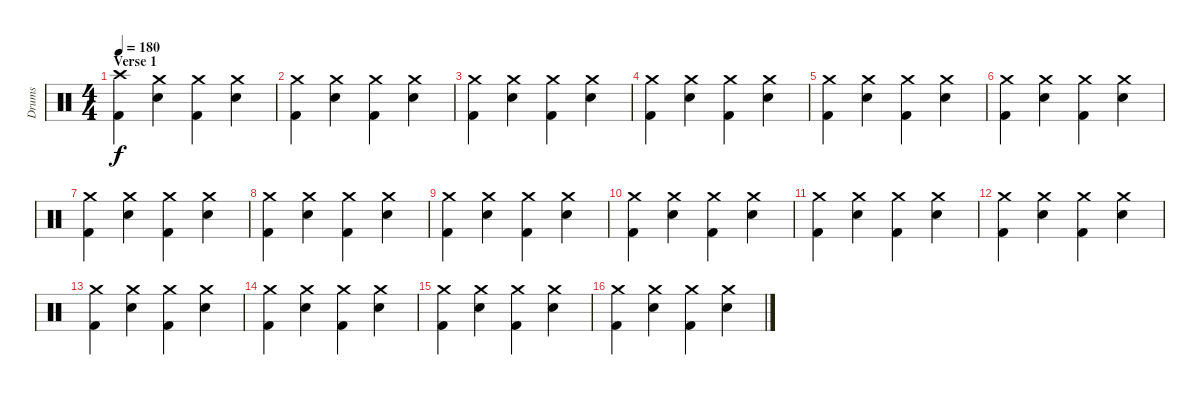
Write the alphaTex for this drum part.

\track ("Drums" "Drums") {instrument percussion}
\staff {score}
\articulation defaults
\ts (4 4)
\section ("" "Verse 1")
\tempo 180
\clef neutral
\ks c
("Crash high (hit)" "Kick (hit) 2").4{dy f} ("Crash medium (hit)" "Snare (hit) 2").4 ("Crash medium (hit)" "Kick (hit) 2").4 ("Crash medium (hit)" "Snare (hit) 2").4 |
("Crash medium (hit)" "Kick (hit) 2").4 ("Crash medium (hit)" "Snare (hit) 2").4 ("Crash medium (hit)" "Kick (hit) 2").4 ("Crash medium (hit)" "Snare (hit) 2").4 |
("Crash medium (hit)" "Kick (hit) 2").4 ("Crash medium (hit)" "Snare (hit) 2").4 ("Crash medium (hit)" "Kick (hit) 2").4 ("Crash medium (hit)" "Snare (hit) 2").4 |
("Crash medium (hit)" "Kick (hit) 2").4 ("Crash medium (hit)" "Snare (hit) 2").4 ("Crash medium (hit)" "Kick (hit) 2").4 ("Crash medium (hit)" "Snare (hit) 2").4 |
("Crash medium (hit)" "Kick (hit) 2").4 ("Crash medium (hit)" "Snare (hit) 2").4 ("Crash medium (hit)" "Kick (hit) 2").4 ("Crash medium (hit)" "Snare (hit) 2").4 |
("Crash medium (hit)" "Kick (hit) 2").4 ("Crash medium (hit)" "Snare (hit) 2").4 ("Crash medium (hit)" "Kick (hit) 2").4 ("Crash medium (hit)" "Snare (hit) 2").4 |
("Crash medium (hit)" "Kick (hit) 2").4 ("Crash medium (hit)" "Snare (hit) 2").4 ("Crash medium (hit)" "Kick (hit) 2").4 ("Crash medium (hit)" "Snare (hit) 2").4 |
("Crash medium (hit)" "Kick (hit) 2").4 ("Crash medium (hit)" "Snare (hit) 2").4 ("Crash medium (hit)" "Kick (hit) 2").4 ("Crash medium (hit)" "Snare (hit) 2").4 |
("Crash medium (hit)" "Kick (hit) 2").4 ("Crash medium (hit)" "Snare (hit) 2").4 ("Crash medium (hit)" "Kick (hit) 2").4 ("Crash medium (hit)" "Snare (hit) 2").4 |
("Crash medium (hit)" "Kick (hit) 2").4 ("Crash medium (hit)" "Snare (hit) 2").4 ("Crash medium (hit)" "Kick (hit) 2").4 ("Crash medium (hit)" "Snare (hit) 2").4 |
("Crash medium (hit)" "Kick (hit) 2").4 ("Crash medium (hit)" "Snare (hit) 2").4 ("Crash medium (hit)" "Kick (hit) 2").4 ("Crash medium (hit)" "Snare (hit) 2").4 |
("Crash medium (hit)" "Kick (hit) 2").4 ("Crash medium (hit)" "Snare (hit) 2").4 ("Crash medium (hit)" "Kick (hit) 2").4 ("Crash medium (hit)" "Snare (hit) 2").4 |
("Crash medium (hit)" "Kick (hit) 2").4 ("Crash medium (hit)" "Snare (hit) 2").4 ("Crash medium (hit)" "Kick (hit) 2").4 ("Crash medium (hit)" "Snare (hit) 2").4 |
("Crash medium (hit)" "Kick (hit) 2").4 ("Crash medium (hit)" "Snare (hit) 2").4 ("Crash medium (hit)" "Kick (hit) 2").4 ("Crash medium (hit)" "Snare (hit) 2").4 |
("Crash medium (hit)" "Kick (hit) 2").4 ("Crash medium (hit)" "Snare (hit) 2").4 ("Crash medium (hit)" "Kick (hit) 2").4 ("Crash medium (hit)" "Snare (hit) 2").4 |
("Crash medium (hit)" "Kick (hit) 2").4 ("Crash medium (hit)" "Snare (hit) 2").4 ("Crash medium (hit)" "Kick (hit) 2").4 ("Crash medium (hit)" "Snare (hit) 2").4
